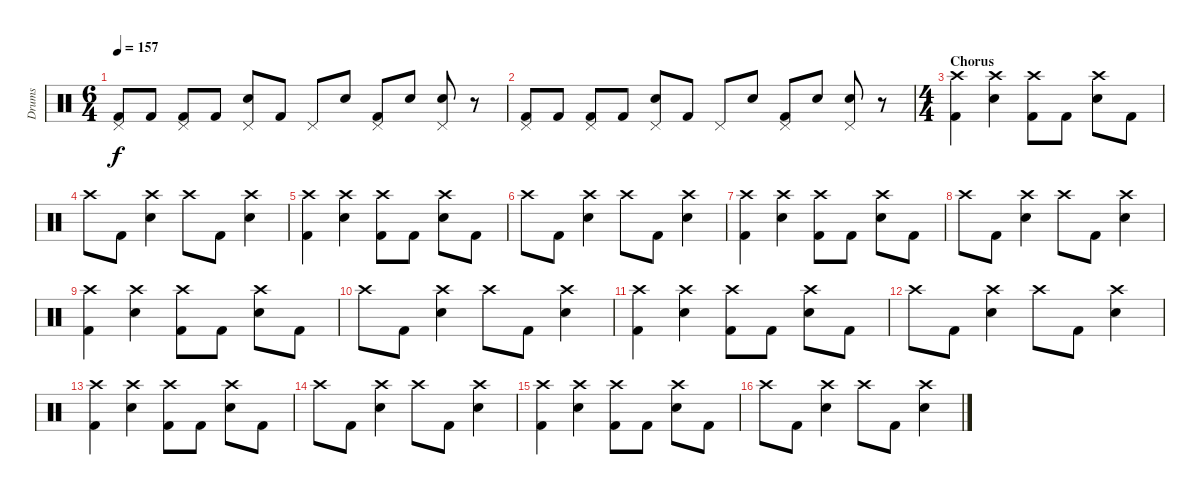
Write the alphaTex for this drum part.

\track ("Drums" "Drums") {instrument percussion}
\staff {score}
\articulation defaults
\ts (6 4)
\tempo 157
\clef neutral
\ks c
("Pedal Hi-Hat (hit)" "Kick (hit) 2").8{dy f} "Kick (hit) 2".8 ("Pedal Hi-Hat (hit)" "Kick (hit) 2").8 "Kick (hit) 2".8 ("Pedal Hi-Hat (hit)" "Electric Snare (hit)").8 "Kick (hit) 2".8 "Pedal Hi-Hat (hit)".8 "Electric Snare (hit)".8 ("Pedal Hi-Hat (hit)" "Kick (hit) 2").8 "Electric Snare (hit)".8 ("Pedal Hi-Hat (hit)" "Electric Snare (hit)").8 r.8 |
("Pedal Hi-Hat (hit)" "Kick (hit) 2").8 "Kick (hit) 2".8 ("Pedal Hi-Hat (hit)" "Kick (hit) 2").8 "Kick (hit) 2".8 ("Pedal Hi-Hat (hit)" "Electric Snare (hit)").8 "Kick (hit) 2".8 "Pedal Hi-Hat (hit)".8 "Electric Snare (hit)".8 ("Pedal Hi-Hat (hit)" "Kick (hit) 2").8 "Electric Snare (hit)".8 ("Pedal Hi-Hat (hit)" "Electric Snare (hit)").8 r.8 |
\ts (4 4)
\section ("" "Chorus")
("Crash high (hit)" "Kick (hit) 2").4 ("Crash high (hit)" "Electric Snare (hit)").4 ("Crash high (hit)" "Kick (hit) 2").8 "Kick (hit) 2".8 ("Crash high (hit)" "Electric Snare (hit)").8 "Kick (hit) 2".8 |
"Crash high (hit)".8 "Kick (hit) 2".8 ("Crash high (hit)" "Electric Snare (hit)").4 "Crash high (hit)".8 "Kick (hit) 2".8 ("Crash high (hit)" "Electric Snare (hit)").4 |
("Crash high (hit)" "Kick (hit) 2").4 ("Crash high (hit)" "Electric Snare (hit)").4 ("Crash high (hit)" "Kick (hit) 2").8 "Kick (hit) 2".8 ("Crash high (hit)" "Electric Snare (hit)").8 "Kick (hit) 2".8 |
"Crash high (hit)".8 "Kick (hit) 2".8 ("Crash high (hit)" "Electric Snare (hit)").4 "Crash high (hit)".8 "Kick (hit) 2".8 ("Crash high (hit)" "Electric Snare (hit)").4 |
("Crash high (hit)" "Kick (hit) 2").4 ("Crash high (hit)" "Electric Snare (hit)").4 ("Crash high (hit)" "Kick (hit) 2").8 "Kick (hit) 2".8 ("Crash high (hit)" "Electric Snare (hit)").8 "Kick (hit) 2".8 |
"Crash high (hit)".8 "Kick (hit) 2".8 ("Crash high (hit)" "Electric Snare (hit)").4 "Crash high (hit)".8 "Kick (hit) 2".8 ("Crash high (hit)" "Electric Snare (hit)").4 |
("Crash high (hit)" "Kick (hit) 2").4 ("Crash high (hit)" "Electric Snare (hit)").4 ("Crash high (hit)" "Kick (hit) 2").8 "Kick (hit) 2".8 ("Crash high (hit)" "Electric Snare (hit)").8 "Kick (hit) 2".8 |
"Crash high (hit)".8 "Kick (hit) 2".8 ("Crash high (hit)" "Electric Snare (hit)").4 "Crash high (hit)".8 "Kick (hit) 2".8 ("Crash high (hit)" "Electric Snare (hit)").4 |
("Crash high (hit)" "Kick (hit) 2").4 ("Crash high (hit)" "Electric Snare (hit)").4 ("Crash high (hit)" "Kick (hit) 2").8 "Kick (hit) 2".8 ("Crash high (hit)" "Electric Snare (hit)").8 "Kick (hit) 2".8 |
"Crash high (hit)".8 "Kick (hit) 2".8 ("Crash high (hit)" "Electric Snare (hit)").4 "Crash high (hit)".8 "Kick (hit) 2".8 ("Crash high (hit)" "Electric Snare (hit)").4 |
("Crash high (hit)" "Kick (hit) 2").4 ("Crash high (hit)" "Electric Snare (hit)").4 ("Crash high (hit)" "Kick (hit) 2").8 "Kick (hit) 2".8 ("Crash high (hit)" "Electric Snare (hit)").8 "Kick (hit) 2".8 |
"Crash high (hit)".8 "Kick (hit) 2".8 ("Crash high (hit)" "Electric Snare (hit)").4 "Crash high (hit)".8 "Kick (hit) 2".8 ("Crash high (hit)" "Electric Snare (hit)").4 |
("Crash high (hit)" "Kick (hit) 2").4 ("Crash high (hit)" "Electric Snare (hit)").4 ("Crash high (hit)" "Kick (hit) 2").8 "Kick (hit) 2".8 ("Crash high (hit)" "Electric Snare (hit)").8 "Kick (hit) 2".8 |
"Crash high (hit)".8 "Kick (hit) 2".8 ("Crash high (hit)" "Electric Snare (hit)").4 "Crash high (hit)".8 "Kick (hit) 2".8 ("Crash high (hit)" "Electric Snare (hit)").4
